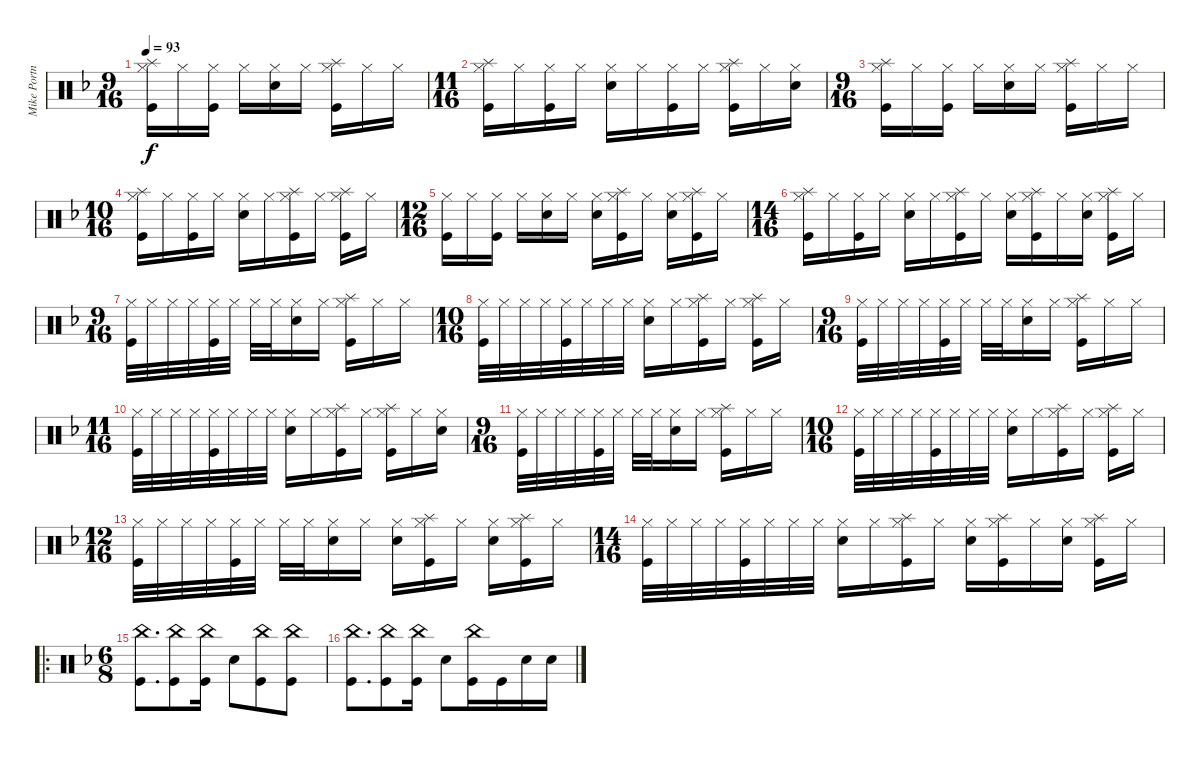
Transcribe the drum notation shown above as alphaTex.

\track ("Mike Portnoy - Drums" "Mike Portn") {instrument percussion}
\staff {score}
\articulation defaults
\ts (9 16)
\tempo 93
\clef neutral
\ks dminor
("Hi-Hat (closed)" "Splash (hit)" "Kick (hit)").16{dy f} "Hi-Hat (closed)".16 ("Hi-Hat (closed)" "Kick (hit)").16 "Hi-Hat (closed)".16 ("Hi-Hat (closed)" "Snare (hit) 2").16 "Hi-Hat (closed)".16 ("Hi-Hat (closed)" "Splash (hit)" "Kick (hit)").16 "Hi-Hat (closed)".16 "Hi-Hat (closed)".16 |
\ts (11 16)
("Hi-Hat (closed)" "Splash (hit)" "Kick (hit)").16 "Hi-Hat (closed)".16 ("Hi-Hat (closed)" "Kick (hit)").16 "Hi-Hat (closed)".16 ("Hi-Hat (closed)" "Snare (hit) 2").16 "Hi-Hat (closed)".16 ("Hi-Hat (closed)" "Kick (hit)").16 "Hi-Hat (closed)".16 ("Hi-Hat (closed)" "Splash (hit)" "Kick (hit)").16 "Hi-Hat (closed)".16 ("Hi-Hat (closed)" "Snare (hit) 2").16 |
\ts (9 16)
("Hi-Hat (closed)" "Splash (hit)" "Kick (hit)").16 "Hi-Hat (closed)".16 ("Hi-Hat (closed)" "Kick (hit)").16 "Hi-Hat (closed)".16 ("Hi-Hat (closed)" "Snare (hit) 2").16 "Hi-Hat (closed)".16 ("Hi-Hat (closed)" "Splash (hit)" "Kick (hit)").16 "Hi-Hat (closed)".16 "Hi-Hat (closed)".16 |
\ts (10 16)
("Hi-Hat (closed)" "Splash (hit)" "Kick (hit)").16 "Hi-Hat (closed)".16 ("Hi-Hat (closed)" "Kick (hit)").16 "Hi-Hat (closed)".16 ("Hi-Hat (closed)" "Snare (hit) 2").16 "Hi-Hat (closed)".16 ("Hi-Hat (closed)" "Splash (hit)" "Kick (hit)").16 "Hi-Hat (closed)".16 ("Hi-Hat (closed)" "Splash (hit)" "Kick (hit)").16 "Hi-Hat (closed)".16 |
\ts (12 16)
("Hi-Hat (closed)" "Kick (hit)").16 "Hi-Hat (closed)".16 ("Hi-Hat (closed)" "Kick (hit)").16 "Hi-Hat (closed)".16 ("Hi-Hat (closed)" "Snare (hit) 2").16 "Hi-Hat (closed)".16 ("Hi-Hat (closed)" "Snare (hit) 2").16 ("Hi-Hat (closed)" "Splash (hit)" "Kick (hit)").16 "Hi-Hat (closed)".16 ("Hi-Hat (closed)" "Snare (hit) 2").16 ("Hi-Hat (closed)" "Splash (hit)" "Kick (hit)").16 "Hi-Hat (closed)".16 |
\ts (14 16)
("Hi-Hat (closed)" "Splash (hit)" "Kick (hit)").16 "Hi-Hat (closed)".16 ("Hi-Hat (closed)" "Kick (hit)").16 "Hi-Hat (closed)".16 ("Hi-Hat (closed)" "Snare (hit) 2").16 "Hi-Hat (closed)".16 ("Hi-Hat (closed)" "Splash (hit)" "Kick (hit)").16 "Hi-Hat (closed)".16 ("Hi-Hat (closed)" "Snare (hit) 2").16 ("Hi-Hat (closed)" "Splash (hit)" "Kick (hit)").16 "Hi-Hat (closed)".16 ("Hi-Hat (closed)" "Snare (hit) 2").16 ("Hi-Hat (closed)" "Splash (hit)" "Kick (hit)").16 "Hi-Hat (closed)".16 |
\ts (9 16)
("Hi-Hat (closed)" "Kick (hit)").32 "Hi-Hat (closed)".32 "Hi-Hat (closed)".32 "Hi-Hat (closed)".32 ("Hi-Hat (closed)" "Kick (hit)").32 "Hi-Hat (closed)".32 "Hi-Hat (closed)".32 "Hi-Hat (closed)".32 ("Hi-Hat (closed)" "Snare (hit) 2").16 "Hi-Hat (closed)".16 ("Hi-Hat (closed)" "Splash (hit)" "Kick (hit)").16 "Hi-Hat (closed)".16 "Hi-Hat (closed)".16 |
\ts (10 16)
("Hi-Hat (closed)" "Kick (hit)").32 "Hi-Hat (closed)".32 "Hi-Hat (closed)".32 "Hi-Hat (closed)".32 ("Hi-Hat (closed)" "Kick (hit)").32 "Hi-Hat (closed)".32 "Hi-Hat (closed)".32 "Hi-Hat (closed)".32 ("Hi-Hat (closed)" "Snare (hit) 2").16 "Hi-Hat (closed)".16 ("Hi-Hat (closed)" "Splash (hit)" "Kick (hit)").16 "Hi-Hat (closed)".16 ("Hi-Hat (closed)" "Splash (hit)" "Kick (hit)").16 "Hi-Hat (closed)".16 |
\ts (9 16)
("Hi-Hat (closed)" "Kick (hit)").32 "Hi-Hat (closed)".32 "Hi-Hat (closed)".32 "Hi-Hat (closed)".32 ("Hi-Hat (closed)" "Kick (hit)").32 "Hi-Hat (closed)".32 "Hi-Hat (closed)".32 "Hi-Hat (closed)".32 ("Hi-Hat (closed)" "Snare (hit) 2").16 "Hi-Hat (closed)".16 ("Hi-Hat (closed)" "Splash (hit)" "Kick (hit)").16 "Hi-Hat (closed)".16 "Hi-Hat (closed)".16 |
\ts (11 16)
("Hi-Hat (closed)" "Kick (hit)").32 "Hi-Hat (closed)".32 "Hi-Hat (closed)".32 "Hi-Hat (closed)".32 ("Hi-Hat (closed)" "Kick (hit)").32 "Hi-Hat (closed)".32 "Hi-Hat (closed)".32 "Hi-Hat (closed)".32 ("Hi-Hat (closed)" "Snare (hit) 2").16 "Hi-Hat (closed)".16 ("Hi-Hat (closed)" "Splash (hit)" "Kick (hit)").16 "Hi-Hat (closed)".16 ("Hi-Hat (closed)" "Splash (hit)" "Kick (hit)").16 "Hi-Hat (closed)".16 ("Hi-Hat (closed)" "Snare (hit) 2").16 |
\ts (9 16)
("Hi-Hat (closed)" "Kick (hit)").32 "Hi-Hat (closed)".32 "Hi-Hat (closed)".32 "Hi-Hat (closed)".32 ("Hi-Hat (closed)" "Kick (hit)").32 "Hi-Hat (closed)".32 "Hi-Hat (closed)".32 "Hi-Hat (closed)".32 ("Hi-Hat (closed)" "Snare (hit) 2").16 "Hi-Hat (closed)".16 ("Hi-Hat (closed)" "Splash (hit)" "Kick (hit)").16 "Hi-Hat (closed)".16 "Hi-Hat (closed)".16 |
\ts (10 16)
("Hi-Hat (closed)" "Kick (hit)").32 "Hi-Hat (closed)".32 "Hi-Hat (closed)".32 "Hi-Hat (closed)".32 ("Hi-Hat (closed)" "Kick (hit)").32 "Hi-Hat (closed)".32 "Hi-Hat (closed)".32 "Hi-Hat (closed)".32 ("Hi-Hat (closed)" "Snare (hit) 2").16 "Hi-Hat (closed)".16 ("Hi-Hat (closed)" "Splash (hit)" "Kick (hit)").16 "Hi-Hat (closed)".16 ("Hi-Hat (closed)" "Splash (hit)" "Kick (hit)").16 "Hi-Hat (closed)".16 |
\ts (12 16)
("Hi-Hat (closed)" "Kick (hit)").32 "Hi-Hat (closed)".32 "Hi-Hat (closed)".32 "Hi-Hat (closed)".32 ("Hi-Hat (closed)" "Kick (hit)").32 "Hi-Hat (closed)".32 "Hi-Hat (closed)".32 "Hi-Hat (closed)".32 ("Hi-Hat (closed)" "Snare (hit) 2").16 "Hi-Hat (closed)".16 ("Hi-Hat (closed)" "Snare (hit) 2").16 ("Hi-Hat (closed)" "Splash (hit)" "Kick (hit)").16 "Hi-Hat (closed)".16 ("Hi-Hat (closed)" "Snare (hit) 2").16 ("Hi-Hat (closed)" "Splash (hit)" "Kick (hit)").16 "Hi-Hat (closed)".16 |
\ts (14 16)
("Hi-Hat (closed)" "Kick (hit)").32 "Hi-Hat (closed)".32 "Hi-Hat (closed)".32 "Hi-Hat (closed)".32 ("Hi-Hat (closed)" "Kick (hit)").32 "Hi-Hat (closed)".32 "Hi-Hat (closed)".32 "Hi-Hat (closed)".32 ("Hi-Hat (closed)" "Snare (hit) 2").16 "Hi-Hat (closed)".16 ("Hi-Hat (closed)" "Splash (hit)" "Kick (hit)").16 "Hi-Hat (closed)".16 ("Hi-Hat (closed)" "Snare (hit) 2").16 ("Hi-Hat (closed)" "Splash (hit)" "Kick (hit)").16 "Hi-Hat (closed)".16 ("Hi-Hat (closed)" "Snare (hit) 2").16 ("Hi-Hat (closed)" "Splash (hit)" "Kick (hit)").16 "Hi-Hat (closed)".16 |
\ro
\ts (6 8)
("China (hit)" "Kick (hit)").8{d} ("China (hit)" "Kick (hit)").8 ("China (hit)" "Kick (hit)").16 "Snare (hit) 2".8 ("China (hit)" "Kick (hit)").8 ("China (hit)" "Kick (hit)").8 |
("China (hit)" "Kick (hit)").8{d} ("China (hit)" "Kick (hit)").8 ("China (hit)" "Kick (hit)").16 "Snare (hit) 2".8 ("China (hit)" "Kick (hit)").16 "Kick (hit)".16 "Snare (hit) 2".16 "Snare (hit) 2".16
